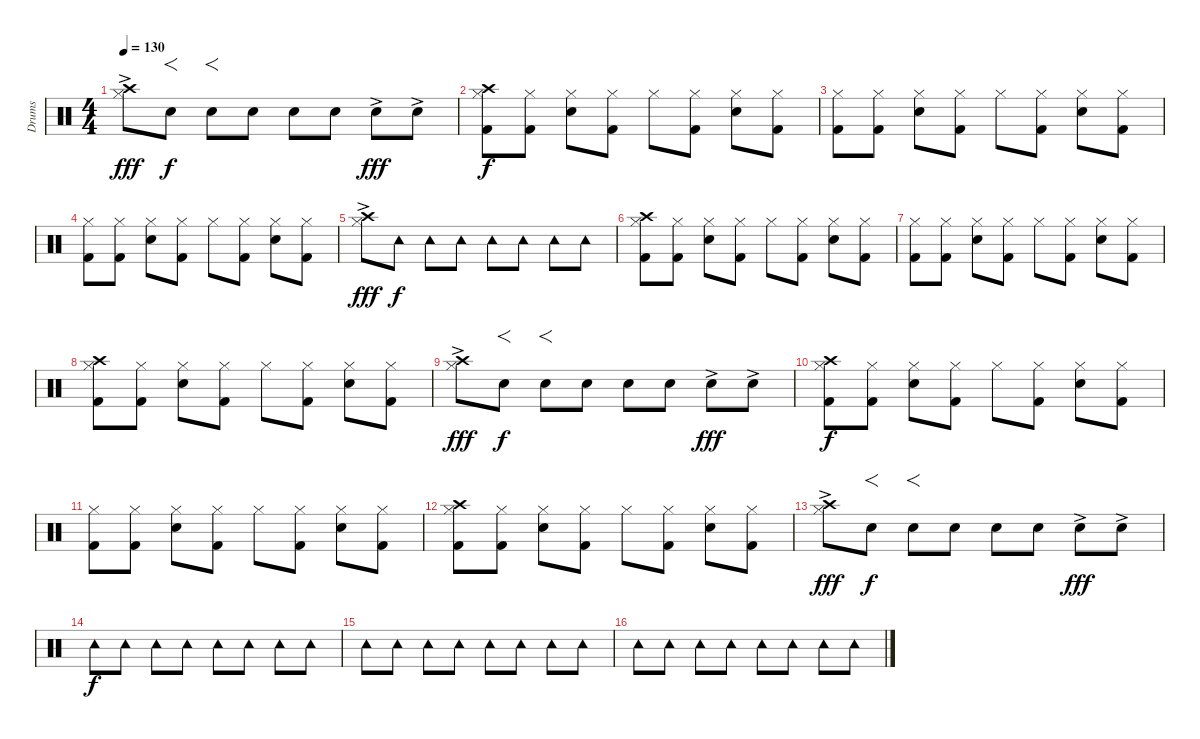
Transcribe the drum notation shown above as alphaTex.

\track ("Drums" "Drums") {instrument percussion}
\staff {score}
\articulation defaults
\ts (4 4)
\tempo 130
\clef neutral
\ks c
("Crash high (hit)"{ac} "Hi-Hat (closed)").8{dy fff} "Snare (hit) 2".8{f dy f} "Snare (hit) 2".8{f} "Snare (hit) 2".8 "Snare (hit) 2".8 "Snare (hit) 2".8 "Snare (hit) 2"{ac}.8{dy fff} "Snare (hit) 2"{ac}.8 |
("Crash high (hit)" "Hi-Hat (closed)" "Kick (hit) 2").8{dy f} ("Hi-Hat (closed)" "Kick (hit) 2").8 ("Hi-Hat (closed)" "Snare (hit) 2").8 ("Hi-Hat (closed)" "Kick (hit) 2").8 "Hi-Hat (closed)".8 ("Hi-Hat (closed)" "Kick (hit) 2").8 ("Hi-Hat (closed)" "Snare (hit) 2").8 ("Hi-Hat (closed)" "Kick (hit) 2").8 |
("Hi-Hat (closed)" "Kick (hit) 2").8 ("Hi-Hat (closed)" "Kick (hit) 2").8 ("Hi-Hat (closed)" "Snare (hit) 2").8 ("Hi-Hat (closed)" "Kick (hit) 2").8 "Hi-Hat (closed)".8 ("Hi-Hat (closed)" "Kick (hit) 2").8 ("Hi-Hat (closed)" "Snare (hit) 2").8 ("Hi-Hat (closed)" "Kick (hit) 2").8 |
("Hi-Hat (closed)" "Kick (hit) 2").8 ("Hi-Hat (closed)" "Kick (hit) 2").8 ("Hi-Hat (closed)" "Snare (hit) 2").8 ("Hi-Hat (closed)" "Kick (hit) 2").8 "Hi-Hat (closed)".8 ("Hi-Hat (closed)" "Kick (hit) 2").8 ("Hi-Hat (closed)" "Snare (hit) 2").8 ("Hi-Hat (closed)" "Kick (hit) 2").8 |
("Crash high (hit)"{ac} "Hi-Hat (closed)").8{dy fff} "Tambourine (hit)".8{dy f} "Tambourine (hit)".8 "Tambourine (hit)".8 "Tambourine (hit)".8 "Tambourine (hit)".8 "Tambourine (hit)".8 "Tambourine (hit)".8 |
("Crash high (hit)" "Hi-Hat (closed)" "Kick (hit) 2").8 ("Hi-Hat (closed)" "Kick (hit) 2").8 ("Hi-Hat (closed)" "Snare (hit) 2").8 ("Hi-Hat (closed)" "Kick (hit) 2").8 "Hi-Hat (closed)".8 ("Hi-Hat (closed)" "Kick (hit) 2").8 ("Hi-Hat (closed)" "Snare (hit) 2").8 ("Hi-Hat (closed)" "Kick (hit) 2").8 |
("Hi-Hat (closed)" "Kick (hit) 2").8 ("Hi-Hat (closed)" "Kick (hit) 2").8 ("Hi-Hat (closed)" "Snare (hit) 2").8 ("Hi-Hat (closed)" "Kick (hit) 2").8 "Hi-Hat (closed)".8 ("Hi-Hat (closed)" "Kick (hit) 2").8 ("Hi-Hat (closed)" "Snare (hit) 2").8 ("Hi-Hat (closed)" "Kick (hit) 2").8 |
("Crash high (hit)" "Hi-Hat (closed)" "Kick (hit) 2").8 ("Hi-Hat (closed)" "Kick (hit) 2").8 ("Hi-Hat (closed)" "Snare (hit) 2").8 ("Hi-Hat (closed)" "Kick (hit) 2").8 "Hi-Hat (closed)".8 ("Hi-Hat (closed)" "Kick (hit) 2").8 ("Hi-Hat (closed)" "Snare (hit) 2").8 ("Hi-Hat (closed)" "Kick (hit) 2").8 |
("Crash high (hit)"{ac} "Hi-Hat (closed)").8{dy fff} "Snare (hit) 2".8{f dy f} "Snare (hit) 2".8{f} "Snare (hit) 2".8 "Snare (hit) 2".8 "Snare (hit) 2".8 "Snare (hit) 2"{ac}.8{dy fff} "Snare (hit) 2"{ac}.8 |
("Crash high (hit)" "Hi-Hat (closed)" "Kick (hit) 2").8{dy f} ("Hi-Hat (closed)" "Kick (hit) 2").8 ("Hi-Hat (closed)" "Snare (hit) 2").8 ("Hi-Hat (closed)" "Kick (hit) 2").8 "Hi-Hat (closed)".8 ("Hi-Hat (closed)" "Kick (hit) 2").8 ("Hi-Hat (closed)" "Snare (hit) 2").8 ("Hi-Hat (closed)" "Kick (hit) 2").8 |
("Hi-Hat (closed)" "Kick (hit) 2").8 ("Hi-Hat (closed)" "Kick (hit) 2").8 ("Hi-Hat (closed)" "Snare (hit) 2").8 ("Hi-Hat (closed)" "Kick (hit) 2").8 "Hi-Hat (closed)".8 ("Hi-Hat (closed)" "Kick (hit) 2").8 ("Hi-Hat (closed)" "Snare (hit) 2").8 ("Hi-Hat (closed)" "Kick (hit) 2").8 |
("Crash high (hit)" "Hi-Hat (closed)" "Kick (hit) 2").8 ("Hi-Hat (closed)" "Kick (hit) 2").8 ("Hi-Hat (closed)" "Snare (hit) 2").8 ("Hi-Hat (closed)" "Kick (hit) 2").8 "Hi-Hat (closed)".8 ("Hi-Hat (closed)" "Kick (hit) 2").8 ("Hi-Hat (closed)" "Snare (hit) 2").8 ("Hi-Hat (closed)" "Kick (hit) 2").8 |
("Crash high (hit)"{ac} "Hi-Hat (closed)").8{dy fff} "Snare (hit) 2".8{f dy f} "Snare (hit) 2".8{f} "Snare (hit) 2".8 "Snare (hit) 2".8 "Snare (hit) 2".8 "Snare (hit) 2"{ac}.8{dy fff} "Snare (hit) 2"{ac}.8 |
"Tambourine (hit)".8{dy f} "Tambourine (hit)".8 "Tambourine (hit)".8 "Tambourine (hit)".8 "Tambourine (hit)".8 "Tambourine (hit)".8 "Tambourine (hit)".8 "Tambourine (hit)".8 |
"Tambourine (hit)".8 "Tambourine (hit)".8 "Tambourine (hit)".8 "Tambourine (hit)".8 "Tambourine (hit)".8 "Tambourine (hit)".8 "Tambourine (hit)".8 "Tambourine (hit)".8 |
"Tambourine (hit)".8 "Tambourine (hit)".8 "Tambourine (hit)".8 "Tambourine (hit)".8 "Tambourine (hit)".8 "Tambourine (hit)".8 "Tambourine (hit)".8 "Tambourine (hit)".8
